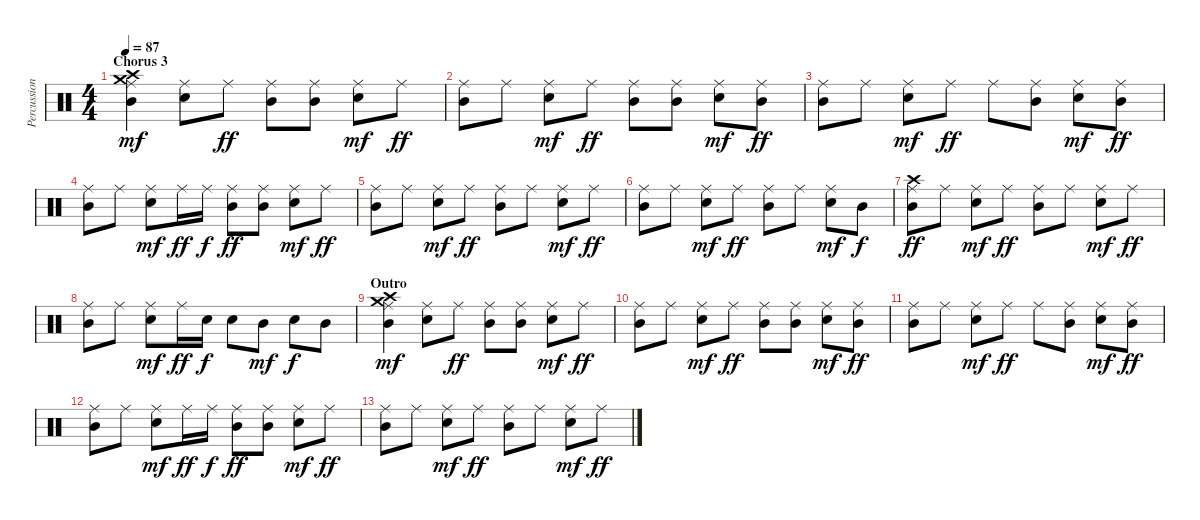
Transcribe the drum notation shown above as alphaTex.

\track ("Percussion" "Percussion") {instrument percussion}
\staff {score}
\articulation defaults
\ts (4 4)
\section ("" "Chorus 3")
\tempo 87
\clef neutral
\ks c
("Ride (middle)" "Crash high (hit)" "Crash medium (hit)" "Mid Tom (hit)").4{dy mf} ("Ride (middle)" "Snare (hit) 2").8 "Ride (middle)".8{dy ff} ("Ride (middle)" "Mid Tom (hit)").8 ("Ride (middle)" "Mid Tom (hit)").8 ("Ride (middle)" "Snare (hit) 2").8{dy mf} "Ride (middle)".8{dy ff} |
("Ride (middle)" "Mid Tom (hit)").8 "Ride (middle)".8 ("Ride (middle)" "Snare (hit) 2").8{dy mf} "Ride (middle)".8{dy ff} ("Ride (middle)" "Mid Tom (hit)").8 ("Ride (middle)" "Mid Tom (hit)").8 ("Ride (middle)" "Snare (hit) 2").8{dy mf} ("Ride (middle)" "Mid Tom (hit)").8{dy ff} |
("Ride (middle)" "Mid Tom (hit)").8 "Ride (middle)".8 ("Ride (middle)" "Snare (hit) 2").8{dy mf} "Ride (middle)".8{dy ff} "Ride (middle)".8 ("Ride (middle)" "Mid Tom (hit)").8 ("Ride (middle)" "Snare (hit) 2").8{dy mf} ("Ride (middle)" "Mid Tom (hit)").8{dy ff} |
("Ride (middle)" "Mid Tom (hit)").8 "Ride (middle)".8 ("Ride (middle)" "Snare (hit) 2").8{dy mf} "Ride (middle)".16{dy ff} "Ride (middle)".16{dy f} ("Ride (middle)" "Mid Tom (hit)").8{dy ff} ("Ride (middle)" "Mid Tom (hit)").8 ("Ride (middle)" "Snare (hit) 2").8{dy mf} "Ride (middle)".8{dy ff} |
("Ride (middle)" "Mid Tom (hit)").8 "Ride (middle)".8 ("Ride (middle)" "Snare (hit) 2").8{dy mf} "Ride (middle)".8{dy ff} ("Ride (middle)" "Mid Tom (hit)").8 "Ride (middle)".8 ("Ride (middle)" "Snare (hit) 2").8{dy mf} "Ride (middle)".8{dy ff} |
("Ride (middle)" "Mid Tom (hit)").8 "Ride (middle)".8 ("Ride (middle)" "Snare (hit) 2").8{dy mf} "Ride (middle)".8{dy ff} ("Ride (middle)" "Mid Tom (hit)").8 "Ride (middle)".8 ("Ride (middle)" "Snare (hit) 2").8{dy mf} "Mid Tom (hit)".8{dy f} |
("Ride (middle)" "Crash high (hit)" "Mid Tom (hit)").8{dy ff} "Ride (middle)".8 ("Ride (middle)" "Snare (hit) 2").8{dy mf} "Ride (middle)".8{dy ff} ("Ride (middle)" "Mid Tom (hit)").8 "Ride (middle)".8 ("Ride (middle)" "Snare (hit) 2").8{dy mf} "Ride (middle)".8{dy ff} |
("Ride (middle)" "Mid Tom (hit)").8 "Ride (middle)".8 ("Ride (middle)" "Snare (hit) 2").8{dy mf} "Ride (middle)".16{dy ff} "Snare (hit) 2".16{dy f} "Snare (hit) 2".8 "Mid Tom (hit)".8{dy mf} "Snare (hit) 2".8{dy f} "Mid Tom (hit)".8 |
\section ("" "Outro")
("Ride (middle)" "Crash high (hit)" "Crash medium (hit)" "Mid Tom (hit)").4{dy mf} ("Ride (middle)" "Snare (hit) 2").8 "Ride (middle)".8{dy ff} ("Ride (middle)" "Mid Tom (hit)").8 ("Ride (middle)" "Mid Tom (hit)").8 ("Ride (middle)" "Snare (hit) 2").8{dy mf} "Ride (middle)".8{dy ff} |
("Ride (middle)" "Mid Tom (hit)").8 "Ride (middle)".8 ("Ride (middle)" "Snare (hit) 2").8{dy mf} "Ride (middle)".8{dy ff} ("Ride (middle)" "Mid Tom (hit)").8 ("Ride (middle)" "Mid Tom (hit)").8 ("Ride (middle)" "Snare (hit) 2").8{dy mf} ("Ride (middle)" "Mid Tom (hit)").8{dy ff} |
("Ride (middle)" "Mid Tom (hit)").8{volume 5} "Ride (middle)".8 ("Ride (middle)" "Snare (hit) 2").8{dy mf} "Ride (middle)".8{dy ff} "Ride (middle)".8 ("Ride (middle)" "Mid Tom (hit)").8 ("Ride (middle)" "Snare (hit) 2").8{dy mf} ("Ride (middle)" "Mid Tom (hit)").8{dy ff} |
("Ride (middle)" "Mid Tom (hit)").8 "Ride (middle)".8 ("Ride (middle)" "Snare (hit) 2").8{dy mf} "Ride (middle)".16{dy ff} "Ride (middle)".16{dy f} ("Ride (middle)" "Mid Tom (hit)").8{dy ff} ("Ride (middle)" "Mid Tom (hit)").8 ("Ride (middle)" "Snare (hit) 2").8{dy mf} "Ride (middle)".8{dy ff} |
("Ride (middle)" "Mid Tom (hit)").8{volume 0} "Ride (middle)".8 ("Ride (middle)" "Snare (hit) 2").8{dy mf} "Ride (middle)".8{dy ff} ("Ride (middle)" "Mid Tom (hit)").8 "Ride (middle)".8 ("Ride (middle)" "Snare (hit) 2").8{dy mf} "Ride (middle)".8{dy ff}
